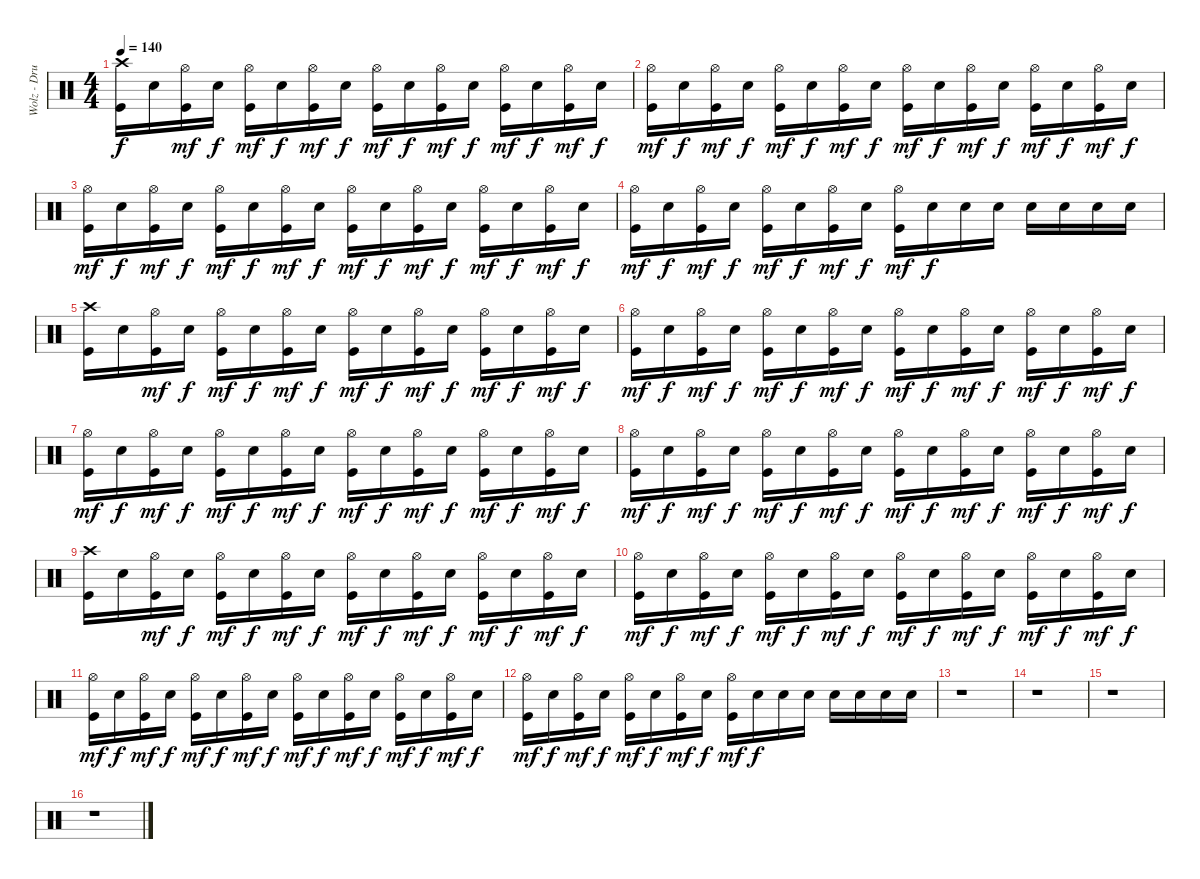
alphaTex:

\track ("Wolz - Drums" "Wolz - Dru") {instrument percussion}
\staff {score}
\articulation defaults
\ts (4 4)
\tempo 140
\clef neutral
\ks c
("Crash high (hit)" "Kick (hit)").16{dy f} "Electric Snare (hit)".16 ("Hi-Hat (open)" "Kick (hit)").16{dy mf} "Electric Snare (hit)".16{dy f} ("Hi-Hat (open)" "Kick (hit)").16{dy mf} "Electric Snare (hit)".16{dy f} ("Hi-Hat (open)" "Kick (hit)").16{dy mf} "Electric Snare (hit)".16{dy f} ("Hi-Hat (open)" "Kick (hit)").16{dy mf} "Electric Snare (hit)".16{dy f} ("Hi-Hat (open)" "Kick (hit)").16{dy mf} "Electric Snare (hit)".16{dy f} ("Hi-Hat (open)" "Kick (hit)").16{dy mf} "Electric Snare (hit)".16{dy f} ("Hi-Hat (open)" "Kick (hit)").16{dy mf} "Electric Snare (hit)".16{dy f} |
("Hi-Hat (open)" "Kick (hit)").16{dy mf} "Electric Snare (hit)".16{dy f} ("Hi-Hat (open)" "Kick (hit)").16{dy mf} "Electric Snare (hit)".16{dy f} ("Hi-Hat (open)" "Kick (hit)").16{dy mf} "Electric Snare (hit)".16{dy f} ("Hi-Hat (open)" "Kick (hit)").16{dy mf} "Electric Snare (hit)".16{dy f} ("Hi-Hat (open)" "Kick (hit)").16{dy mf} "Electric Snare (hit)".16{dy f} ("Hi-Hat (open)" "Kick (hit)").16{dy mf} "Electric Snare (hit)".16{dy f} ("Hi-Hat (open)" "Kick (hit)").16{dy mf} "Electric Snare (hit)".16{dy f} ("Hi-Hat (open)" "Kick (hit)").16{dy mf} "Electric Snare (hit)".16{dy f} |
("Hi-Hat (open)" "Kick (hit)").16{dy mf} "Electric Snare (hit)".16{dy f} ("Hi-Hat (open)" "Kick (hit)").16{dy mf} "Electric Snare (hit)".16{dy f} ("Hi-Hat (open)" "Kick (hit)").16{dy mf} "Electric Snare (hit)".16{dy f} ("Hi-Hat (open)" "Kick (hit)").16{dy mf} "Electric Snare (hit)".16{dy f} ("Hi-Hat (open)" "Kick (hit)").16{dy mf} "Electric Snare (hit)".16{dy f} ("Hi-Hat (open)" "Kick (hit)").16{dy mf} "Electric Snare (hit)".16{dy f} ("Hi-Hat (open)" "Kick (hit)").16{dy mf} "Electric Snare (hit)".16{dy f} ("Hi-Hat (open)" "Kick (hit)").16{dy mf} "Electric Snare (hit)".16{dy f} |
("Hi-Hat (open)" "Kick (hit)").16{dy mf} "Electric Snare (hit)".16{dy f} ("Hi-Hat (open)" "Kick (hit)").16{dy mf} "Electric Snare (hit)".16{dy f} ("Hi-Hat (open)" "Kick (hit)").16{dy mf} "Electric Snare (hit)".16{dy f} ("Hi-Hat (open)" "Kick (hit)").16{dy mf} "Electric Snare (hit)".16{dy f} ("Hi-Hat (open)" "Kick (hit)").16{dy mf} "Electric Snare (hit)".16{dy f} "Electric Snare (hit)".16 "Electric Snare (hit)".16 "Electric Snare (hit)".16 "Electric Snare (hit)".16 "Electric Snare (hit)".16 "Electric Snare (hit)".16 |
("Crash high (hit)" "Kick (hit)").16 "Electric Snare (hit)".16 ("Hi-Hat (open)" "Kick (hit)").16{dy mf} "Electric Snare (hit)".16{dy f} ("Hi-Hat (open)" "Kick (hit)").16{dy mf} "Electric Snare (hit)".16{dy f} ("Hi-Hat (open)" "Kick (hit)").16{dy mf} "Electric Snare (hit)".16{dy f} ("Hi-Hat (open)" "Kick (hit)").16{dy mf} "Electric Snare (hit)".16{dy f} ("Hi-Hat (open)" "Kick (hit)").16{dy mf} "Electric Snare (hit)".16{dy f} ("Hi-Hat (open)" "Kick (hit)").16{dy mf} "Electric Snare (hit)".16{dy f} ("Hi-Hat (open)" "Kick (hit)").16{dy mf} "Electric Snare (hit)".16{dy f} |
("Hi-Hat (open)" "Kick (hit)").16{dy mf} "Electric Snare (hit)".16{dy f} ("Hi-Hat (open)" "Kick (hit)").16{dy mf} "Electric Snare (hit)".16{dy f} ("Hi-Hat (open)" "Kick (hit)").16{dy mf} "Electric Snare (hit)".16{dy f} ("Hi-Hat (open)" "Kick (hit)").16{dy mf} "Electric Snare (hit)".16{dy f} ("Hi-Hat (open)" "Kick (hit)").16{dy mf} "Electric Snare (hit)".16{dy f} ("Hi-Hat (open)" "Kick (hit)").16{dy mf} "Electric Snare (hit)".16{dy f} ("Hi-Hat (open)" "Kick (hit)").16{dy mf} "Electric Snare (hit)".16{dy f} ("Hi-Hat (open)" "Kick (hit)").16{dy mf} "Electric Snare (hit)".16{dy f} |
("Hi-Hat (open)" "Kick (hit)").16{dy mf} "Electric Snare (hit)".16{dy f} ("Hi-Hat (open)" "Kick (hit)").16{dy mf} "Electric Snare (hit)".16{dy f} ("Hi-Hat (open)" "Kick (hit)").16{dy mf} "Electric Snare (hit)".16{dy f} ("Hi-Hat (open)" "Kick (hit)").16{dy mf} "Electric Snare (hit)".16{dy f} ("Hi-Hat (open)" "Kick (hit)").16{dy mf} "Electric Snare (hit)".16{dy f} ("Hi-Hat (open)" "Kick (hit)").16{dy mf} "Electric Snare (hit)".16{dy f} ("Hi-Hat (open)" "Kick (hit)").16{dy mf} "Electric Snare (hit)".16{dy f} ("Hi-Hat (open)" "Kick (hit)").16{dy mf} "Electric Snare (hit)".16{dy f} |
("Hi-Hat (open)" "Kick (hit)").16{dy mf} "Electric Snare (hit)".16{dy f} ("Hi-Hat (open)" "Kick (hit)").16{dy mf} "Electric Snare (hit)".16{dy f} ("Hi-Hat (open)" "Kick (hit)").16{dy mf} "Electric Snare (hit)".16{dy f} ("Hi-Hat (open)" "Kick (hit)").16{dy mf} "Electric Snare (hit)".16{dy f} ("Hi-Hat (open)" "Kick (hit)").16{dy mf} "Electric Snare (hit)".16{dy f} ("Hi-Hat (open)" "Kick (hit)").16{dy mf} "Electric Snare (hit)".16{dy f} ("Hi-Hat (open)" "Kick (hit)").16{dy mf} "Electric Snare (hit)".16{dy f} ("Hi-Hat (open)" "Kick (hit)").16{dy mf} "Electric Snare (hit)".16{dy f} |
("Crash high (hit)" "Kick (hit)").16 "Electric Snare (hit)".16 ("Hi-Hat (open)" "Kick (hit)").16{dy mf} "Electric Snare (hit)".16{dy f} ("Hi-Hat (open)" "Kick (hit)").16{dy mf} "Electric Snare (hit)".16{dy f} ("Hi-Hat (open)" "Kick (hit)").16{dy mf} "Electric Snare (hit)".16{dy f} ("Hi-Hat (open)" "Kick (hit)").16{dy mf} "Electric Snare (hit)".16{dy f} ("Hi-Hat (open)" "Kick (hit)").16{dy mf} "Electric Snare (hit)".16{dy f} ("Hi-Hat (open)" "Kick (hit)").16{dy mf} "Electric Snare (hit)".16{dy f} ("Hi-Hat (open)" "Kick (hit)").16{dy mf} "Electric Snare (hit)".16{dy f} |
("Hi-Hat (open)" "Kick (hit)").16{dy mf} "Electric Snare (hit)".16{dy f} ("Hi-Hat (open)" "Kick (hit)").16{dy mf} "Electric Snare (hit)".16{dy f} ("Hi-Hat (open)" "Kick (hit)").16{dy mf} "Electric Snare (hit)".16{dy f} ("Hi-Hat (open)" "Kick (hit)").16{dy mf} "Electric Snare (hit)".16{dy f} ("Hi-Hat (open)" "Kick (hit)").16{dy mf} "Electric Snare (hit)".16{dy f} ("Hi-Hat (open)" "Kick (hit)").16{dy mf} "Electric Snare (hit)".16{dy f} ("Hi-Hat (open)" "Kick (hit)").16{dy mf} "Electric Snare (hit)".16{dy f} ("Hi-Hat (open)" "Kick (hit)").16{dy mf} "Electric Snare (hit)".16{dy f} |
("Hi-Hat (open)" "Kick (hit)").16{dy mf} "Electric Snare (hit)".16{dy f} ("Hi-Hat (open)" "Kick (hit)").16{dy mf} "Electric Snare (hit)".16{dy f} ("Hi-Hat (open)" "Kick (hit)").16{dy mf} "Electric Snare (hit)".16{dy f} ("Hi-Hat (open)" "Kick (hit)").16{dy mf} "Electric Snare (hit)".16{dy f} ("Hi-Hat (open)" "Kick (hit)").16{dy mf} "Electric Snare (hit)".16{dy f} ("Hi-Hat (open)" "Kick (hit)").16{dy mf} "Electric Snare (hit)".16{dy f} ("Hi-Hat (open)" "Kick (hit)").16{dy mf} "Electric Snare (hit)".16{dy f} ("Hi-Hat (open)" "Kick (hit)").16{dy mf} "Electric Snare (hit)".16{dy f} |
("Hi-Hat (open)" "Kick (hit)").16{dy mf} "Electric Snare (hit)".16{dy f} ("Hi-Hat (open)" "Kick (hit)").16{dy mf} "Electric Snare (hit)".16{dy f} ("Hi-Hat (open)" "Kick (hit)").16{dy mf} "Electric Snare (hit)".16{dy f} ("Hi-Hat (open)" "Kick (hit)").16{dy mf} "Electric Snare (hit)".16{dy f} ("Hi-Hat (open)" "Kick (hit)").16{dy mf} "Electric Snare (hit)".16{dy f} "Electric Snare (hit)".16 "Electric Snare (hit)".16 "Electric Snare (hit)".16 "Electric Snare (hit)".16 "Electric Snare (hit)".16 "Electric Snare (hit)".16 |
r.1 |
r.1 |
r.1 |
r.1
